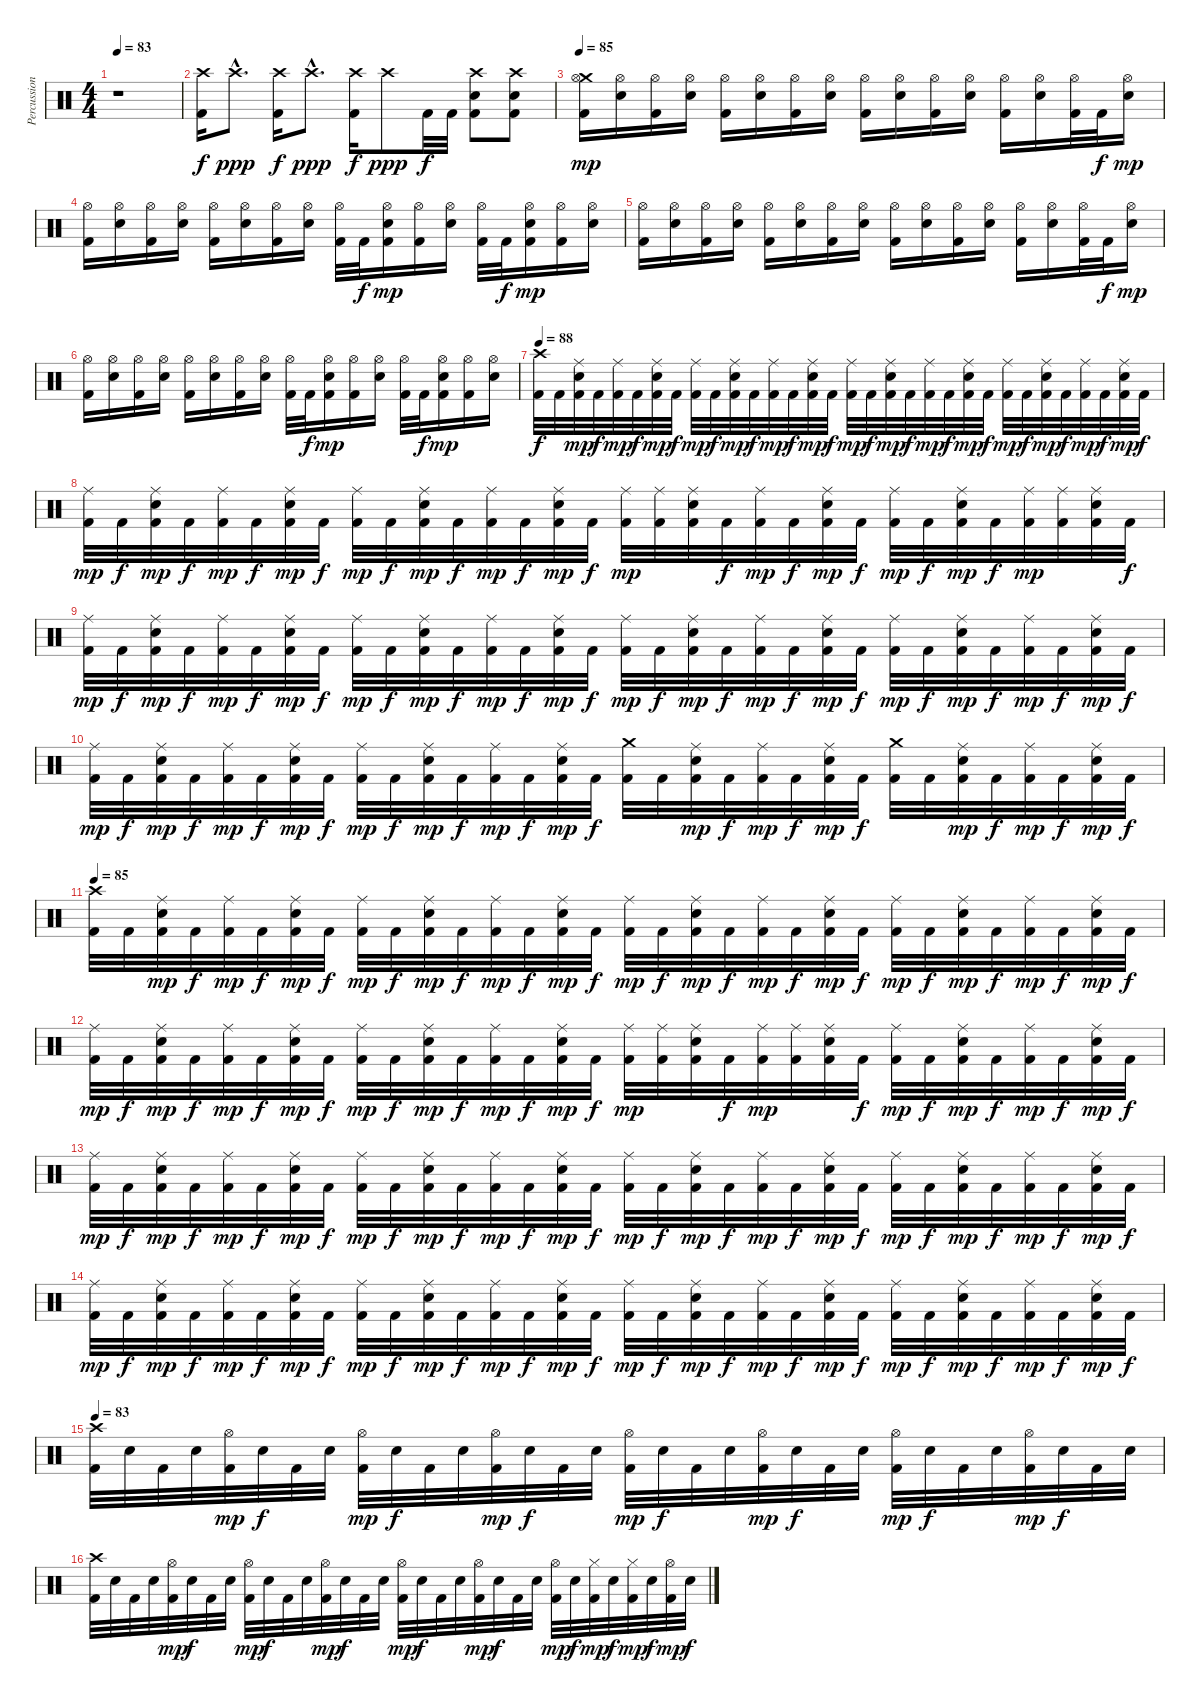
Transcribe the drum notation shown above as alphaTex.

\track ("Percussion" "Percussion") {instrument percussion}
\staff {score}
\articulation defaults
\ts (4 4)
\tempo 83
\clef neutral
\ks c
r.1{dy f} |
("Crash high (hit)" "Kick (hit) 2").16 "Crash high (hit)"{hac}.8{d dy ppp} ("Crash high (hit)" "Kick (hit) 2").16{dy f} "Crash high (hit)"{hac}.8{d dy ppp} ("Crash high (hit)" "Kick (hit) 2").16{dy f} "Crash high (hit)".8{dy ppp} "Kick (hit) 2".32{dy f} "Kick (hit) 2".32 ("Crash high (hit)" "Electric Snare (hit)" "Kick (hit) 2").8 ("Crash high (hit)" "Electric Snare (hit)" "Kick (hit) 2").8 |
\tempo 85
("Crash medium (hit)" "Hi-Hat (open)" "Kick (hit) 2").16{dy mp} ("Hi-Hat (open)" "Electric Snare (hit)").16 ("Hi-Hat (open)" "Kick (hit) 2").16 ("Hi-Hat (open)" "Electric Snare (hit)").16 ("Hi-Hat (open)" "Kick (hit) 2").16 ("Hi-Hat (open)" "Electric Snare (hit)").16 ("Hi-Hat (open)" "Kick (hit) 2").16 ("Hi-Hat (open)" "Electric Snare (hit)").16 ("Hi-Hat (open)" "Kick (hit) 2").16 ("Hi-Hat (open)" "Electric Snare (hit)").16 ("Hi-Hat (open)" "Kick (hit) 2").16 ("Hi-Hat (open)" "Electric Snare (hit)").16 ("Hi-Hat (open)" "Kick (hit) 2").16 ("Hi-Hat (open)" "Electric Snare (hit)").16 ("Hi-Hat (open)" "Kick (hit) 2").32 "Kick (hit) 2".32{dy f} ("Hi-Hat (open)" "Electric Snare (hit)").16{dy mp} |
("Hi-Hat (open)" "Kick (hit) 2").16 ("Hi-Hat (open)" "Electric Snare (hit)").16 ("Hi-Hat (open)" "Kick (hit) 2").16 ("Hi-Hat (open)" "Electric Snare (hit)").16 ("Hi-Hat (open)" "Kick (hit) 2").16 ("Hi-Hat (open)" "Electric Snare (hit)").16 ("Hi-Hat (open)" "Kick (hit) 2").16 ("Hi-Hat (open)" "Electric Snare (hit)").16 ("Hi-Hat (open)" "Kick (hit) 2").32 "Kick (hit) 2".32{dy f} ("Hi-Hat (open)" "Electric Snare (hit)" "Kick (hit) 2").16{dy mp} ("Hi-Hat (open)" "Kick (hit) 2").16 ("Hi-Hat (open)" "Electric Snare (hit)").16 ("Hi-Hat (open)" "Kick (hit) 2").32 "Kick (hit) 2".32{dy f} ("Hi-Hat (open)" "Electric Snare (hit)" "Kick (hit) 2").16{dy mp} ("Hi-Hat (open)" "Kick (hit) 2").16 ("Hi-Hat (open)" "Electric Snare (hit)").16 |
("Hi-Hat (open)" "Kick (hit) 2").16 ("Hi-Hat (open)" "Electric Snare (hit)").16 ("Hi-Hat (open)" "Kick (hit) 2").16 ("Hi-Hat (open)" "Electric Snare (hit)").16 ("Hi-Hat (open)" "Kick (hit) 2").16 ("Hi-Hat (open)" "Electric Snare (hit)").16 ("Hi-Hat (open)" "Kick (hit) 2").16 ("Hi-Hat (open)" "Electric Snare (hit)").16 ("Hi-Hat (open)" "Kick (hit) 2").16 ("Hi-Hat (open)" "Electric Snare (hit)").16 ("Hi-Hat (open)" "Kick (hit) 2").16 ("Hi-Hat (open)" "Electric Snare (hit)").16 ("Hi-Hat (open)" "Kick (hit) 2").16 ("Hi-Hat (open)" "Electric Snare (hit)").16 ("Hi-Hat (open)" "Kick (hit) 2").32 "Kick (hit) 2".32{dy f} ("Hi-Hat (open)" "Electric Snare (hit)").16{dy mp} |
("Hi-Hat (open)" "Kick (hit) 2").16 ("Hi-Hat (open)" "Electric Snare (hit)").16 ("Hi-Hat (open)" "Kick (hit) 2").16 ("Hi-Hat (open)" "Electric Snare (hit)").16 ("Hi-Hat (open)" "Kick (hit) 2").16 ("Hi-Hat (open)" "Electric Snare (hit)").16 ("Hi-Hat (open)" "Kick (hit) 2").16 ("Hi-Hat (open)" "Electric Snare (hit)").16 ("Hi-Hat (open)" "Kick (hit) 2").32 "Kick (hit) 2".32{dy f} ("Hi-Hat (open)" "Electric Snare (hit)" "Kick (hit) 2").16{dy mp} ("Hi-Hat (open)" "Kick (hit) 2").16 ("Hi-Hat (open)" "Electric Snare (hit)").16 ("Hi-Hat (open)" "Kick (hit) 2").32 "Kick (hit) 2".32{dy f} ("Hi-Hat (open)" "Electric Snare (hit)" "Kick (hit) 2").16{dy mp} ("Hi-Hat (open)" "Kick (hit) 2").16 ("Hi-Hat (open)" "Electric Snare (hit)").16 |
\tempo 88
("Crash high (hit)" "Kick (hit) 2").32{dy f} "Kick (hit) 2".32 ("Ride (middle)" "Electric Snare (hit)" "Kick (hit) 2").32{dy mp} "Kick (hit) 2".32{dy f} ("Ride (middle)" "Kick (hit) 2").32{dy mp} "Kick (hit) 2".32{dy f} ("Ride (middle)" "Electric Snare (hit)" "Kick (hit) 2").32{dy mp} "Kick (hit) 2".32{dy f} ("Ride (middle)" "Kick (hit) 2").32{dy mp} "Kick (hit) 2".32{dy f} ("Ride (middle)" "Electric Snare (hit)" "Kick (hit) 2").32{dy mp} "Kick (hit) 2".32{dy f} ("Ride (middle)" "Kick (hit) 2").32{dy mp} "Kick (hit) 2".32{dy f} ("Ride (middle)" "Electric Snare (hit)" "Kick (hit) 2").32{dy mp} "Kick (hit) 2".32{dy f} ("Ride (middle)" "Kick (hit) 2").32{dy mp} "Kick (hit) 2".32{dy f} ("Ride (middle)" "Electric Snare (hit)" "Kick (hit) 2").32{dy mp} "Kick (hit) 2".32{dy f} ("Ride (middle)" "Kick (hit) 2").32{dy mp} "Kick (hit) 2".32{dy f} ("Ride (middle)" "Electric Snare (hit)" "Kick (hit) 2").32{dy mp} "Kick (hit) 2".32{dy f} ("Ride (middle)" "Kick (hit) 2").32{dy mp} "Kick (hit) 2".32{dy f} ("Ride (middle)" "Electric Snare (hit)" "Kick (hit) 2").32{dy mp} "Kick (hit) 2".32{dy f} ("Ride (middle)" "Kick (hit) 2").32{dy mp} "Kick (hit) 2".32{dy f} ("Ride (middle)" "Electric Snare (hit)" "Kick (hit) 2").32{dy mp} "Kick (hit) 2".32{dy f} |
("Ride (middle)" "Kick (hit) 2").32{dy mp} "Kick (hit) 2".32{dy f} ("Ride (middle)" "Electric Snare (hit)" "Kick (hit) 2").32{dy mp} "Kick (hit) 2".32{dy f} ("Ride (middle)" "Kick (hit) 2").32{dy mp} "Kick (hit) 2".32{dy f} ("Ride (middle)" "Electric Snare (hit)" "Kick (hit) 2").32{dy mp} "Kick (hit) 2".32{dy f} ("Ride (middle)" "Kick (hit) 2").32{dy mp} "Kick (hit) 2".32{dy f} ("Ride (middle)" "Electric Snare (hit)" "Kick (hit) 2").32{dy mp} "Kick (hit) 2".32{dy f} ("Ride (middle)" "Kick (hit) 2").32{dy mp} "Kick (hit) 2".32{dy f} ("Ride (middle)" "Electric Snare (hit)" "Kick (hit) 2").32{dy mp} "Kick (hit) 2".32{dy f} ("Ride (middle)" "Kick (hit) 2").32{dy mp} ("Ride (middle)" "Kick (hit) 2").32 ("Ride (middle)" "Electric Snare (hit)" "Kick (hit) 2").32 "Kick (hit) 2".32{dy f} ("Ride (middle)" "Kick (hit) 2").32{dy mp} "Kick (hit) 2".32{dy f} ("Ride (middle)" "Electric Snare (hit)" "Kick (hit) 2").32{dy mp} "Kick (hit) 2".32{dy f} ("Ride (middle)" "Kick (hit) 2").32{dy mp} "Kick (hit) 2".32{dy f} ("Ride (middle)" "Electric Snare (hit)" "Kick (hit) 2").32{dy mp} "Kick (hit) 2".32{dy f} ("Ride (middle)" "Kick (hit) 2").32{dy mp} ("Ride (middle)" "Kick (hit) 2").32 ("Ride (middle)" "Electric Snare (hit)" "Kick (hit) 2").32 "Kick (hit) 2".32{dy f} |
("Ride (middle)" "Kick (hit) 2").32{dy mp} "Kick (hit) 2".32{dy f} ("Ride (middle)" "Electric Snare (hit)" "Kick (hit) 2").32{dy mp} "Kick (hit) 2".32{dy f} ("Ride (middle)" "Kick (hit) 2").32{dy mp} "Kick (hit) 2".32{dy f} ("Ride (middle)" "Electric Snare (hit)" "Kick (hit) 2").32{dy mp} "Kick (hit) 2".32{dy f} ("Ride (middle)" "Kick (hit) 2").32{dy mp} "Kick (hit) 2".32{dy f} ("Ride (middle)" "Electric Snare (hit)" "Kick (hit) 2").32{dy mp} "Kick (hit) 2".32{dy f} ("Ride (middle)" "Kick (hit) 2").32{dy mp} "Kick (hit) 2".32{dy f} ("Ride (middle)" "Electric Snare (hit)" "Kick (hit) 2").32{dy mp} "Kick (hit) 2".32{dy f} ("Ride (middle)" "Kick (hit) 2").32{dy mp} "Kick (hit) 2".32{dy f} ("Ride (middle)" "Electric Snare (hit)" "Kick (hit) 2").32{dy mp} "Kick (hit) 2".32{dy f} ("Ride (middle)" "Kick (hit) 2").32{dy mp} "Kick (hit) 2".32{dy f} ("Ride (middle)" "Electric Snare (hit)" "Kick (hit) 2").32{dy mp} "Kick (hit) 2".32{dy f} ("Ride (middle)" "Kick (hit) 2").32{dy mp} "Kick (hit) 2".32{dy f} ("Ride (middle)" "Electric Snare (hit)" "Kick (hit) 2").32{dy mp} "Kick (hit) 2".32{dy f} ("Ride (middle)" "Kick (hit) 2").32{dy mp} "Kick (hit) 2".32{dy f} ("Ride (middle)" "Electric Snare (hit)" "Kick (hit) 2").32{dy mp} "Kick (hit) 2".32{dy f} |
("Ride (middle)" "Kick (hit) 2").32{dy mp} "Kick (hit) 2".32{dy f} ("Ride (middle)" "Electric Snare (hit)" "Kick (hit) 2").32{dy mp} "Kick (hit) 2".32{dy f} ("Ride (middle)" "Kick (hit) 2").32{dy mp} "Kick (hit) 2".32{dy f} ("Ride (middle)" "Electric Snare (hit)" "Kick (hit) 2").32{dy mp} "Kick (hit) 2".32{dy f} ("Ride (middle)" "Kick (hit) 2").32{dy mp} "Kick (hit) 2".32{dy f} ("Ride (middle)" "Electric Snare (hit)" "Kick (hit) 2").32{dy mp} "Kick (hit) 2".32{dy f} ("Ride (middle)" "Kick (hit) 2").32{dy mp} "Kick (hit) 2".32{dy f} ("Ride (middle)" "Electric Snare (hit)" "Kick (hit) 2").32{dy mp} "Kick (hit) 2".32{dy f} ("Crash medium (hit)" "Kick (hit) 2").32 "Kick (hit) 2".32 ("Ride (middle)" "Electric Snare (hit)" "Kick (hit) 2").32{dy mp} "Kick (hit) 2".32{dy f} ("Ride (middle)" "Kick (hit) 2").32{dy mp} "Kick (hit) 2".32{dy f} ("Ride (middle)" "Electric Snare (hit)" "Kick (hit) 2").32{dy mp} "Kick (hit) 2".32{dy f} ("Crash medium (hit)" "Kick (hit) 2").32 "Kick (hit) 2".32 ("Ride (middle)" "Electric Snare (hit)" "Kick (hit) 2").32{dy mp} "Kick (hit) 2".32{dy f} ("Ride (middle)" "Kick (hit) 2").32{dy mp} "Kick (hit) 2".32{dy f} ("Ride (middle)" "Electric Snare (hit)" "Kick (hit) 2").32{dy mp} "Kick (hit) 2".32{dy f} |
\tempo 85
("Crash high (hit)" "Kick (hit) 2").32 "Kick (hit) 2".32 ("Ride (middle)" "Electric Snare (hit)" "Kick (hit) 2").32{dy mp} "Kick (hit) 2".32{dy f} ("Ride (middle)" "Kick (hit) 2").32{dy mp} "Kick (hit) 2".32{dy f} ("Ride (middle)" "Electric Snare (hit)" "Kick (hit) 2").32{dy mp} "Kick (hit) 2".32{dy f} ("Ride (middle)" "Kick (hit) 2").32{dy mp} "Kick (hit) 2".32{dy f} ("Ride (middle)" "Electric Snare (hit)" "Kick (hit) 2").32{dy mp} "Kick (hit) 2".32{dy f} ("Ride (middle)" "Kick (hit) 2").32{dy mp} "Kick (hit) 2".32{dy f} ("Ride (middle)" "Electric Snare (hit)" "Kick (hit) 2").32{dy mp} "Kick (hit) 2".32{dy f} ("Ride (middle)" "Kick (hit) 2").32{dy mp} "Kick (hit) 2".32{dy f} ("Ride (middle)" "Electric Snare (hit)" "Kick (hit) 2").32{dy mp} "Kick (hit) 2".32{dy f} ("Ride (middle)" "Kick (hit) 2").32{dy mp} "Kick (hit) 2".32{dy f} ("Ride (middle)" "Electric Snare (hit)" "Kick (hit) 2").32{dy mp} "Kick (hit) 2".32{dy f} ("Ride (middle)" "Kick (hit) 2").32{dy mp} "Kick (hit) 2".32{dy f} ("Ride (middle)" "Electric Snare (hit)" "Kick (hit) 2").32{dy mp} "Kick (hit) 2".32{dy f} ("Ride (middle)" "Kick (hit) 2").32{dy mp} "Kick (hit) 2".32{dy f} ("Ride (middle)" "Electric Snare (hit)" "Kick (hit) 2").32{dy mp} "Kick (hit) 2".32{dy f} |
("Ride (middle)" "Kick (hit) 2").32{dy mp} "Kick (hit) 2".32{dy f} ("Ride (middle)" "Electric Snare (hit)" "Kick (hit) 2").32{dy mp} "Kick (hit) 2".32{dy f} ("Ride (middle)" "Kick (hit) 2").32{dy mp} "Kick (hit) 2".32{dy f} ("Ride (middle)" "Electric Snare (hit)" "Kick (hit) 2").32{dy mp} "Kick (hit) 2".32{dy f} ("Ride (middle)" "Kick (hit) 2").32{dy mp} "Kick (hit) 2".32{dy f} ("Ride (middle)" "Electric Snare (hit)" "Kick (hit) 2").32{dy mp} "Kick (hit) 2".32{dy f} ("Ride (middle)" "Kick (hit) 2").32{dy mp} "Kick (hit) 2".32{dy f} ("Ride (middle)" "Electric Snare (hit)" "Kick (hit) 2").32{dy mp} "Kick (hit) 2".32{dy f} ("Ride (middle)" "Kick (hit) 2").32{dy mp} ("Ride (middle)" "Kick (hit) 2").32 ("Ride (middle)" "Electric Snare (hit)" "Kick (hit) 2").32 "Kick (hit) 2".32{dy f} ("Ride (middle)" "Kick (hit) 2").32{dy mp} ("Ride (middle)" "Kick (hit) 2").32 ("Ride (middle)" "Electric Snare (hit)" "Kick (hit) 2").32 "Kick (hit) 2".32{dy f} ("Ride (middle)" "Kick (hit) 2").32{dy mp} "Kick (hit) 2".32{dy f} ("Ride (middle)" "Electric Snare (hit)" "Kick (hit) 2").32{dy mp} "Kick (hit) 2".32{dy f} ("Ride (middle)" "Kick (hit) 2").32{dy mp} "Kick (hit) 2".32{dy f} ("Ride (middle)" "Electric Snare (hit)" "Kick (hit) 2").32{dy mp} "Kick (hit) 2".32{dy f} |
("Ride (middle)" "Kick (hit) 2").32{dy mp} "Kick (hit) 2".32{dy f} ("Ride (middle)" "Electric Snare (hit)" "Kick (hit) 2").32{dy mp} "Kick (hit) 2".32{dy f} ("Ride (middle)" "Kick (hit) 2").32{dy mp} "Kick (hit) 2".32{dy f} ("Ride (middle)" "Electric Snare (hit)" "Kick (hit) 2").32{dy mp} "Kick (hit) 2".32{dy f} ("Ride (middle)" "Kick (hit) 2").32{dy mp} "Kick (hit) 2".32{dy f} ("Ride (middle)" "Electric Snare (hit)" "Kick (hit) 2").32{dy mp} "Kick (hit) 2".32{dy f} ("Ride (middle)" "Kick (hit) 2").32{dy mp} "Kick (hit) 2".32{dy f} ("Ride (middle)" "Electric Snare (hit)" "Kick (hit) 2").32{dy mp} "Kick (hit) 2".32{dy f} ("Ride (middle)" "Kick (hit) 2").32{dy mp} "Kick (hit) 2".32{dy f} ("Ride (middle)" "Electric Snare (hit)" "Kick (hit) 2").32{dy mp} "Kick (hit) 2".32{dy f} ("Ride (middle)" "Kick (hit) 2").32{dy mp} "Kick (hit) 2".32{dy f} ("Ride (middle)" "Electric Snare (hit)" "Kick (hit) 2").32{dy mp} "Kick (hit) 2".32{dy f} ("Ride (middle)" "Kick (hit) 2").32{dy mp} "Kick (hit) 2".32{dy f} ("Ride (middle)" "Electric Snare (hit)" "Kick (hit) 2").32{dy mp} "Kick (hit) 2".32{dy f} ("Ride (middle)" "Kick (hit) 2").32{dy mp} "Kick (hit) 2".32{dy f} ("Ride (middle)" "Electric Snare (hit)" "Kick (hit) 2").32{dy mp} "Kick (hit) 2".32{dy f} |
("Ride (middle)" "Kick (hit) 2").32{dy mp} "Kick (hit) 2".32{dy f} ("Ride (middle)" "Electric Snare (hit)" "Kick (hit) 2").32{dy mp} "Kick (hit) 2".32{dy f} ("Ride (middle)" "Kick (hit) 2").32{dy mp} "Kick (hit) 2".32{dy f} ("Ride (middle)" "Electric Snare (hit)" "Kick (hit) 2").32{dy mp} "Kick (hit) 2".32{dy f} ("Ride (middle)" "Kick (hit) 2").32{dy mp} "Kick (hit) 2".32{dy f} ("Ride (middle)" "Electric Snare (hit)" "Kick (hit) 2").32{dy mp} "Kick (hit) 2".32{dy f} ("Ride (middle)" "Kick (hit) 2").32{dy mp} "Kick (hit) 2".32{dy f} ("Ride (middle)" "Electric Snare (hit)" "Kick (hit) 2").32{dy mp} "Kick (hit) 2".32{dy f} ("Ride (middle)" "Kick (hit) 2").32{dy mp} "Kick (hit) 2".32{dy f} ("Ride (middle)" "Electric Snare (hit)" "Kick (hit) 2").32{dy mp} "Kick (hit) 2".32{dy f} ("Ride (middle)" "Kick (hit) 2").32{dy mp} "Kick (hit) 2".32{dy f} ("Ride (middle)" "Electric Snare (hit)" "Kick (hit) 2").32{dy mp} "Kick (hit) 2".32{dy f} ("Ride (middle)" "Kick (hit) 2").32{dy mp} "Kick (hit) 2".32{dy f} ("Ride (middle)" "Electric Snare (hit)" "Kick (hit) 2").32{dy mp} "Kick (hit) 2".32{dy f} ("Ride (middle)" "Kick (hit) 2").32{dy mp} "Kick (hit) 2".32{dy f} ("Ride (middle)" "Electric Snare (hit)" "Kick (hit) 2").32{dy mp} "Kick (hit) 2".32{dy f} |
\tempo 83
("Crash high (hit)" "Kick (hit) 2").32 "Electric Snare (hit)".32 "Kick (hit) 2".32 "Electric Snare (hit)".32 ("Hi-Hat (open)" "Kick (hit) 2").32{dy mp} "Electric Snare (hit)".32{dy f} "Kick (hit) 2".32 "Electric Snare (hit)".32 ("Hi-Hat (open)" "Kick (hit) 2").32{dy mp} "Electric Snare (hit)".32{dy f} "Kick (hit) 2".32 "Electric Snare (hit)".32 ("Hi-Hat (open)" "Kick (hit) 2").32{dy mp} "Electric Snare (hit)".32{dy f} "Kick (hit) 2".32 "Electric Snare (hit)".32 ("Hi-Hat (open)" "Kick (hit) 2").32{dy mp} "Electric Snare (hit)".32{dy f} "Kick (hit) 2".32 "Electric Snare (hit)".32 ("Hi-Hat (open)" "Kick (hit) 2").32{dy mp} "Electric Snare (hit)".32{dy f} "Kick (hit) 2".32 "Electric Snare (hit)".32 ("Hi-Hat (open)" "Kick (hit) 2").32{dy mp} "Electric Snare (hit)".32{dy f} "Kick (hit) 2".32 "Electric Snare (hit)".32 ("Hi-Hat (open)" "Kick (hit) 2").32{dy mp} "Electric Snare (hit)".32{dy f} "Kick (hit) 2".32 "Electric Snare (hit)".32 |
("Crash high (hit)" "Kick (hit) 2").32 "Electric Snare (hit)".32 "Kick (hit) 2".32 "Electric Snare (hit)".32 ("Hi-Hat (open)" "Kick (hit) 2").32{dy mp} "Electric Snare (hit)".32{dy f} "Kick (hit) 2".32 "Electric Snare (hit)".32 ("Hi-Hat (open)" "Kick (hit) 2").32{dy mp} "Electric Snare (hit)".32{dy f} "Kick (hit) 2".32 "Electric Snare (hit)".32 ("Hi-Hat (open)" "Kick (hit) 2").32{dy mp} "Electric Snare (hit)".32{dy f} "Kick (hit) 2".32 "Electric Snare (hit)".32 ("Hi-Hat (open)" "Kick (hit) 2").32{dy mp} "Electric Snare (hit)".32{dy f} "Kick (hit) 2".32 "Electric Snare (hit)".32 ("Hi-Hat (open)" "Kick (hit) 2").32{dy mp} "Electric Snare (hit)".32{dy f} "Kick (hit) 2".32 "Electric Snare (hit)".32 ("Hi-Hat (open)" "Kick (hit) 2").32{dy mp} "Electric Snare (hit)".32{dy f} ("Hi-Hat (closed)" "Kick (hit) 2").32{dy mp} "Electric Snare (hit)".32{dy f} ("Hi-Hat (closed)" "Kick (hit) 2").32{dy mp} "Electric Snare (hit)".32{dy f} ("Hi-Hat (open)" "Kick (hit) 2").32{dy mp} "Electric Snare (hit)".32{dy f}
